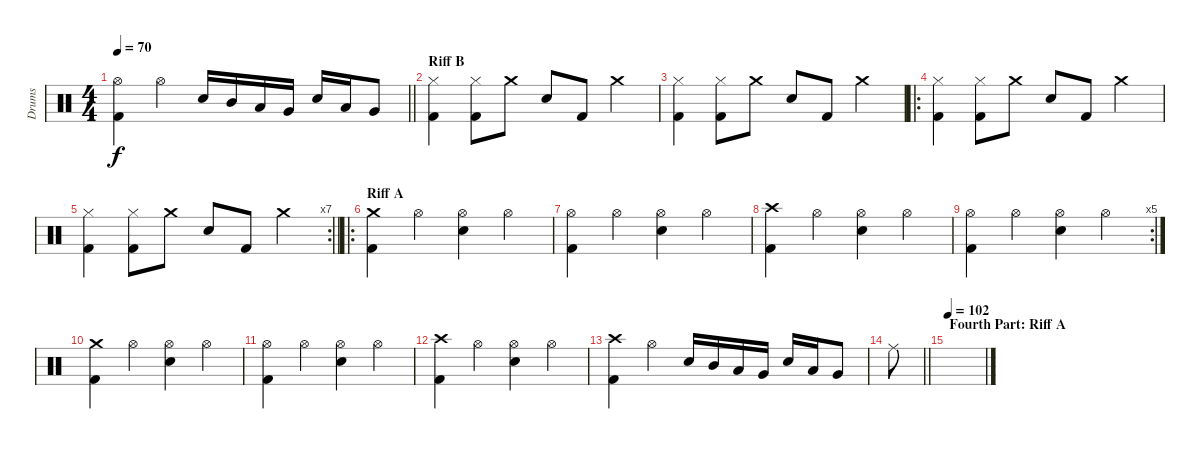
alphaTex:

\track ("Drums" "Drums") {instrument percussion}
\staff {score}
\articulation defaults
\ts (4 4)
\tempo 70
\clef neutral
\barLineRight lightlight
\ks c
("Hi-Hat (open)" "Kick (hit) 2").4{dy f} "Hi-Hat (open)".4 "Electric Snare (hit)".16 "Mid Tom (hit)".16 "Low Tom (hit)".16 "Very Low Tom (hit)".16 "Electric Snare (hit)".16 "Low Tom (hit)".16 "Very Low Tom (hit)".8 |
\section ("" "Riff B")
("Hi-Hat (closed)" "Kick (hit) 2").4 ("Hi-Hat (closed)" "Kick (hit) 2").8 "Crash medium (hit)".8 "Electric Snare (hit)".8 "Kick (hit) 2".8 "Crash medium (hit)".4 |
("Hi-Hat (closed)" "Kick (hit) 2").4 ("Hi-Hat (closed)" "Kick (hit) 2").8 "Crash medium (hit)".8 "Electric Snare (hit)".8 "Kick (hit) 2".8 "Crash medium (hit)".4 |
\ro
("Hi-Hat (closed)" "Kick (hit) 2").4 ("Hi-Hat (closed)" "Kick (hit) 2").8 "Crash medium (hit)".8 "Electric Snare (hit)".8 "Kick (hit) 2".8 "Crash medium (hit)".4 |
\rc 7
\barLineRight lightlight
("Hi-Hat (closed)" "Kick (hit) 2").4 ("Hi-Hat (closed)" "Kick (hit) 2").8 "Crash medium (hit)".8 "Electric Snare (hit)".8 "Kick (hit) 2".8 "Crash medium (hit)".4 |
\ro
\section ("" "Riff A")
("Crash medium (hit)" "Kick (hit) 2").4 "Hi-Hat (open)".4 ("Hi-Hat (open)" "Electric Snare (hit)").4 "Hi-Hat (open)".4 |
("Hi-Hat (open)" "Kick (hit) 2").4 "Hi-Hat (open)".4 ("Hi-Hat (open)" "Electric Snare (hit)").4 "Hi-Hat (open)".4 |
("Crash high (hit)" "Kick (hit) 2").4 "Hi-Hat (open)".4 ("Hi-Hat (open)" "Electric Snare (hit)").4 "Hi-Hat (open)".4 |
\rc 5
("Hi-Hat (open)" "Kick (hit) 2").4 "Hi-Hat (open)".4 ("Hi-Hat (open)" "Electric Snare (hit)").4 "Hi-Hat (open)".4 |
("Crash medium (hit)" "Kick (hit) 2").4 "Hi-Hat (open)".4 ("Hi-Hat (open)" "Electric Snare (hit)").4 "Hi-Hat (open)".4 |
("Hi-Hat (open)" "Kick (hit) 2").4 "Hi-Hat (open)".4 ("Hi-Hat (open)" "Electric Snare (hit)").4 "Hi-Hat (open)".4 |
("Crash high (hit)" "Kick (hit) 2").4 "Hi-Hat (open)".4 ("Hi-Hat (open)" "Electric Snare (hit)").4 "Hi-Hat (open)".4 |
("Crash high (hit)" "Kick (hit) 2").4 "Hi-Hat (open)".4 "Electric Snare (hit)".16 "Mid Tom (hit)".16 "Low Tom (hit)".16 "Very Low Tom (hit)".16 "Electric Snare (hit)".16 "Low Tom (hit)".16 "Very Low Tom (hit)".8 |
\barLineRight lightlight "Ride (middle)".8
|
\section ("" "Fourth Part: Riff A")
\tempo 102
